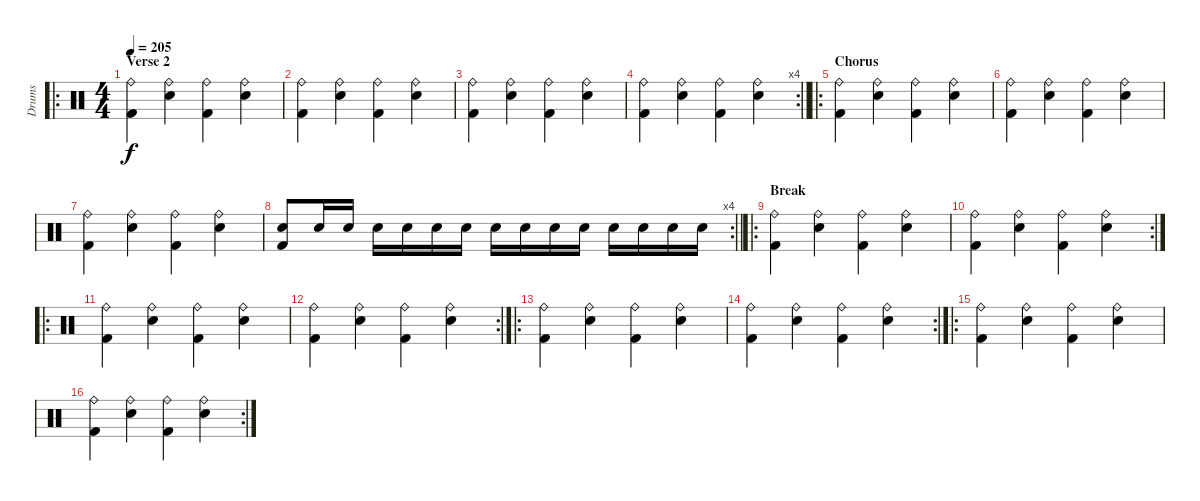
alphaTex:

\track ("Drums" "Drums") {instrument percussion}
\staff {score}
\articulation defaults
\ro
\ts (4 4)
\section ("" "Verse 2")
\tempo 205
\clef neutral
\ks c
("Ride (bell)" "Kick (hit) 2").4{dy f} ("Ride (bell)" "Snare (hit) 2").4 ("Ride (bell)" "Kick (hit) 2").4 ("Ride (bell)" "Snare (hit) 2").4 |
("Ride (bell)" "Kick (hit) 2").4 ("Ride (bell)" "Snare (hit) 2").4 ("Ride (bell)" "Kick (hit) 2").4 ("Ride (bell)" "Snare (hit) 2").4 |
("Ride (bell)" "Kick (hit) 2").4 ("Ride (bell)" "Snare (hit) 2").4 ("Ride (bell)" "Kick (hit) 2").4 ("Ride (bell)" "Snare (hit) 2").4 |
\rc 4
\barLineRight lightlight
("Ride (bell)" "Kick (hit) 2").4 ("Ride (bell)" "Snare (hit) 2").4 ("Ride (bell)" "Kick (hit) 2").4 ("Ride (bell)" "Snare (hit) 2").4 |
\ro
\section ("" "Chorus")
("Ride (bell)" "Kick (hit) 2").4 ("Ride (bell)" "Snare (hit) 2").4 ("Ride (bell)" "Kick (hit) 2").4 ("Ride (bell)" "Snare (hit) 2").4 |
("Ride (bell)" "Kick (hit) 2").4 ("Ride (bell)" "Snare (hit) 2").4 ("Ride (bell)" "Kick (hit) 2").4 ("Ride (bell)" "Snare (hit) 2").4 |
("Ride (bell)" "Kick (hit) 2").4 ("Ride (bell)" "Snare (hit) 2").4 ("Ride (bell)" "Kick (hit) 2").4 ("Ride (bell)" "Snare (hit) 2").4 |
\rc 4
\barLineRight lightlight
("Snare (hit) 2" "Kick (hit) 2").8 "Snare (hit) 2".16 "Snare (hit) 2".16 "Snare (hit) 2".16 "Snare (hit) 2".16 "Snare (hit) 2".16 "Snare (hit) 2".16 "Snare (hit) 2".16 "Snare (hit) 2".16 "Snare (hit) 2".16 "Snare (hit) 2".16 "Snare (hit) 2".16 "Snare (hit) 2".16 "Snare (hit) 2".16 "Snare (hit) 2".16 |
\ro
\section ("" "Break")
("Ride (bell)" "Kick (hit) 2").4 ("Ride (bell)" "Snare (hit) 2").4 ("Ride (bell)" "Kick (hit) 2").4 ("Ride (bell)" "Snare (hit) 2").4 |
\rc 2
("Ride (bell)" "Kick (hit) 2").4 ("Ride (bell)" "Snare (hit) 2").4 ("Ride (bell)" "Kick (hit) 2").4 ("Ride (bell)" "Snare (hit) 2").4 |
\ro
("Ride (bell)" "Kick (hit) 2").4 ("Ride (bell)" "Snare (hit) 2").4 ("Ride (bell)" "Kick (hit) 2").4 ("Ride (bell)" "Snare (hit) 2").4 |
\rc 2
("Ride (bell)" "Kick (hit) 2").4 ("Ride (bell)" "Snare (hit) 2").4 ("Ride (bell)" "Kick (hit) 2").4 ("Ride (bell)" "Snare (hit) 2").4 |
\ro
("Ride (bell)" "Kick (hit) 2").4 ("Ride (bell)" "Snare (hit) 2").4 ("Ride (bell)" "Kick (hit) 2").4 ("Ride (bell)" "Snare (hit) 2").4 |
\rc 2
("Ride (bell)" "Kick (hit) 2").4 ("Ride (bell)" "Snare (hit) 2").4 ("Ride (bell)" "Kick (hit) 2").4 ("Ride (bell)" "Snare (hit) 2").4 |
\ro
("Ride (bell)" "Kick (hit) 2").4 ("Ride (bell)" "Snare (hit) 2").4 ("Ride (bell)" "Kick (hit) 2").4 ("Ride (bell)" "Snare (hit) 2").4 |
\rc 2
("Ride (bell)" "Kick (hit) 2").4 ("Ride (bell)" "Snare (hit) 2").4 ("Ride (bell)" "Kick (hit) 2").4 ("Ride (bell)" "Snare (hit) 2").4
